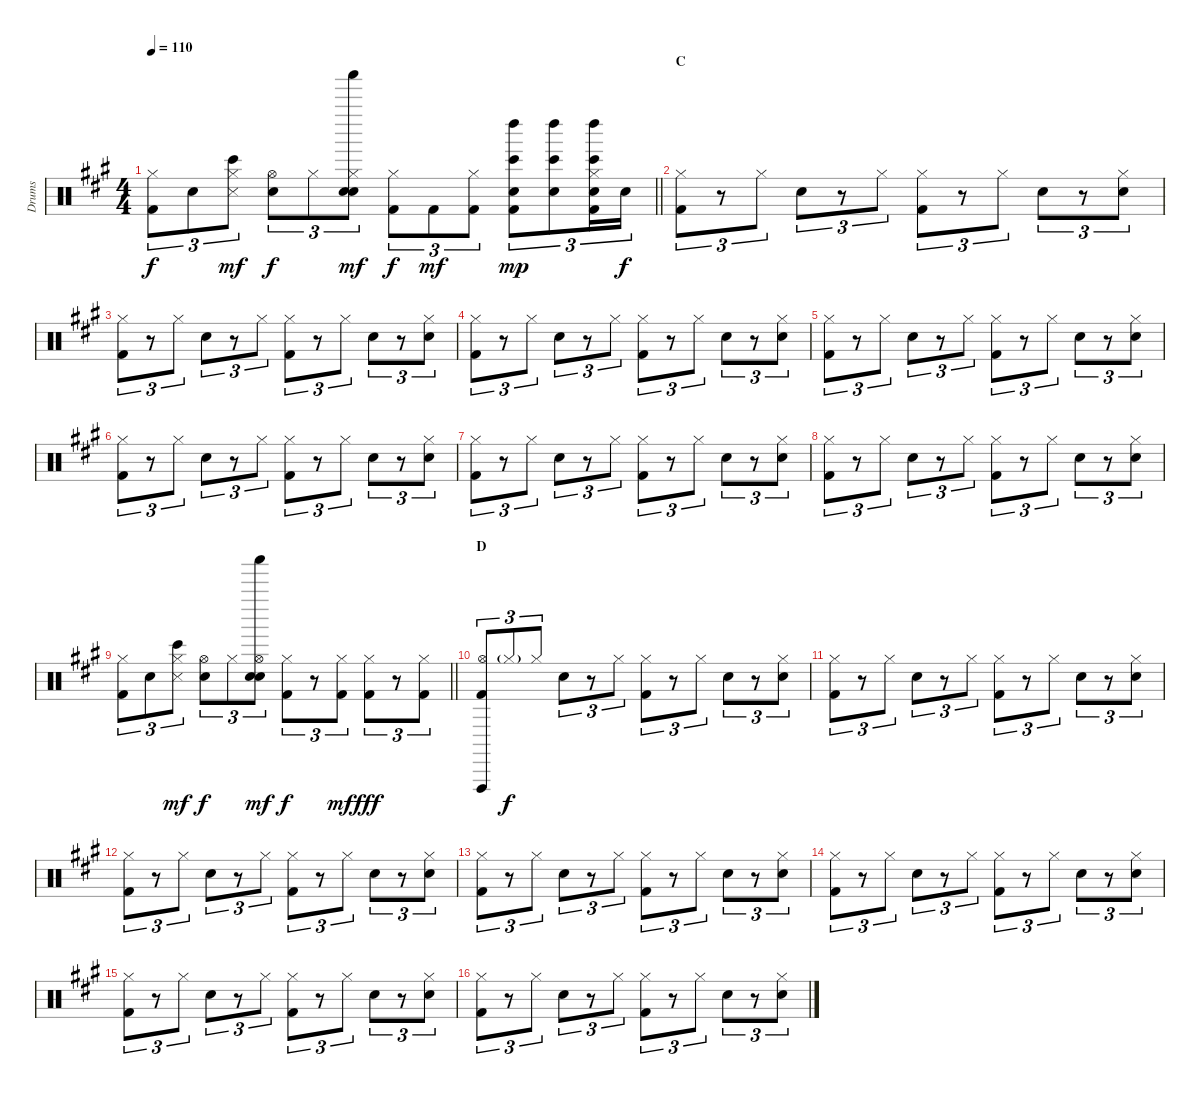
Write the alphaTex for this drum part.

\track ("Drums" "Drums") {instrument percussion}
\staff {score}
\articulation defaults
\ts (4 4)
\tempo 110
\clef neutral
\barLineRight lightlight
\ks a
("Hi-Hat (closed)" "Kick (hit) 2").8{tu (3 2) dy f} "Snare (hit) 2".8{tu (3 2)} ("Hi-Hat (closed)" "Metronome (hit)" "Bongo High (hit)").8{tu (3 2) dy mf} ("Hi-Hat (open)" "Snare (hit) 2").8{tu (3 2) dy f} "Hi-Hat (closed)".8{tu (3 2)} ("Shaker (hit)" "Hi-Hat (closed)" "Snare (hit) 2" "Snare (hit) 2").8{tu (3 2) dy mf} ("Hi-Hat (closed)" "Kick (hit) 2").8{tu (3 2) dy f} "Kick (hit) 2".8{tu (3 2) dy mf} ("Hi-Hat (closed)" "Kick (hit) 2").8{tu (3 2)} ("Snare (hit) 2" "Kick (hit) 2" "Left Maraca (hit)" "Bongo High (hit)").8{tu (3 2) dy mp} ("Snare (hit) 2" "Left Maraca (hit)" "Bongo High (hit)").8{tu (3 2)} ("Hi-Hat (closed)" "Snare (hit) 2" "Kick (hit) 2" "Left Maraca (hit)" "Bongo High (hit)").16{tu (3 2)} "Snare (hit) 2".16{tu (3 2) dy f} |
\section ("" "C")
("Hi-Hat (closed)" "Kick (hit) 2").8{tu (3 2)} r.8{tu (3 2)} "Hi-Hat (closed)".8{tu (3 2)} "Snare (hit) 2".8{tu (3 2)} r.8{tu (3 2)} "Hi-Hat (closed)".8{tu (3 2)} ("Hi-Hat (closed)" "Kick (hit) 2").8{tu (3 2)} r.8{tu (3 2)} "Hi-Hat (closed)".8{tu (3 2)} "Snare (hit) 2".8{tu (3 2)} r.8{tu (3 2)} ("Hi-Hat (closed)" "Snare (hit) 2").8{tu (3 2)} |
("Hi-Hat (closed)" "Kick (hit) 2").8{tu (3 2)} r.8{tu (3 2)} "Hi-Hat (closed)".8{tu (3 2)} "Snare (hit) 2".8{tu (3 2)} r.8{tu (3 2)} "Hi-Hat (closed)".8{tu (3 2)} ("Hi-Hat (closed)" "Kick (hit) 2").8{tu (3 2)} r.8{tu (3 2)} "Hi-Hat (closed)".8{tu (3 2)} "Snare (hit) 2".8{tu (3 2)} r.8{tu (3 2)} ("Hi-Hat (closed)" "Snare (hit) 2").8{tu (3 2)} |
("Hi-Hat (closed)" "Kick (hit) 2").8{tu (3 2)} r.8{tu (3 2)} "Hi-Hat (closed)".8{tu (3 2)} "Snare (hit) 2".8{tu (3 2)} r.8{tu (3 2)} "Hi-Hat (closed)".8{tu (3 2)} ("Hi-Hat (closed)" "Kick (hit) 2").8{tu (3 2)} r.8{tu (3 2)} "Hi-Hat (closed)".8{tu (3 2)} "Snare (hit) 2".8{tu (3 2)} r.8{tu (3 2)} ("Hi-Hat (closed)" "Snare (hit) 2").8{tu (3 2)} |
("Hi-Hat (closed)" "Kick (hit) 2").8{tu (3 2)} r.8{tu (3 2)} "Hi-Hat (closed)".8{tu (3 2)} "Snare (hit) 2".8{tu (3 2)} r.8{tu (3 2)} "Hi-Hat (closed)".8{tu (3 2)} ("Hi-Hat (closed)" "Kick (hit) 2").8{tu (3 2)} r.8{tu (3 2)} "Hi-Hat (closed)".8{tu (3 2)} "Snare (hit) 2".8{tu (3 2)} r.8{tu (3 2)} ("Hi-Hat (closed)" "Snare (hit) 2").8{tu (3 2)} |
("Hi-Hat (closed)" "Kick (hit) 2").8{tu (3 2)} r.8{tu (3 2)} "Hi-Hat (closed)".8{tu (3 2)} "Snare (hit) 2".8{tu (3 2)} r.8{tu (3 2)} "Hi-Hat (closed)".8{tu (3 2)} ("Hi-Hat (closed)" "Kick (hit) 2").8{tu (3 2)} r.8{tu (3 2)} "Hi-Hat (closed)".8{tu (3 2)} "Snare (hit) 2".8{tu (3 2)} r.8{tu (3 2)} ("Hi-Hat (closed)" "Snare (hit) 2").8{tu (3 2)} |
("Hi-Hat (closed)" "Kick (hit) 2").8{tu (3 2)} r.8{tu (3 2)} "Hi-Hat (closed)".8{tu (3 2)} "Snare (hit) 2".8{tu (3 2)} r.8{tu (3 2)} "Hi-Hat (closed)".8{tu (3 2)} ("Hi-Hat (closed)" "Kick (hit) 2").8{tu (3 2)} r.8{tu (3 2)} "Hi-Hat (closed)".8{tu (3 2)} "Snare (hit) 2".8{tu (3 2)} r.8{tu (3 2)} ("Hi-Hat (closed)" "Snare (hit) 2").8{tu (3 2)} |
("Hi-Hat (closed)" "Kick (hit) 2").8{tu (3 2)} r.8{tu (3 2)} "Hi-Hat (closed)".8{tu (3 2)} "Snare (hit) 2".8{tu (3 2)} r.8{tu (3 2)} "Hi-Hat (closed)".8{tu (3 2)} ("Hi-Hat (closed)" "Kick (hit) 2").8{tu (3 2)} r.8{tu (3 2)} "Hi-Hat (closed)".8{tu (3 2)} "Snare (hit) 2".8{tu (3 2)} r.8{tu (3 2)} ("Hi-Hat (closed)" "Snare (hit) 2").8{tu (3 2)} |
\barLineRight lightlight
("Hi-Hat (closed)" "Kick (hit) 2").8{tu (3 2)} "Snare (hit) 2".8{tu (3 2)} ("Hi-Hat (closed)" "Metronome (hit)" "Bongo High (hit)").8{tu (3 2) dy mf} ("Hi-Hat (open)" "Snare (hit) 2").8{tu (3 2) dy f} "Hi-Hat (closed)".8{tu (3 2)} ("Shaker (hit)" "Hi-Hat (open)" "Snare (hit) 2" "Snare (hit) 2").8{tu (3 2) dy mf} ("Hi-Hat (closed)" "Kick (hit) 2").8{tu (3 2) dy f} r.8{tu (3 2)} ("Hi-Hat (closed)" "Kick (hit) 2").8{tu (3 2) dy mf} ("Hi-Hat (closed)" "Kick (hit) 2").8{tu (3 2) dy fff} r.8{tu (3 2)} ("Hi-Hat (closed)" "Kick (hit) 2").8{tu (3 2)} |
\section ("" "D")
("Vibraslap (hit)" "Hi-Hat (open)" "Kick (hit) 2").8{tu (3 2)} "Hi-Hat (closed)"{g}.8{tu (3 2) dy f} "Hi-Hat (closed)".8{tu (3 2)} "Snare (hit) 2".8{tu (3 2)} r.8{tu (3 2)} "Hi-Hat (closed)".8{tu (3 2)} ("Hi-Hat (closed)" "Kick (hit) 2").8{tu (3 2)} r.8{tu (3 2)} "Hi-Hat (closed)".8{tu (3 2)} "Snare (hit) 2".8{tu (3 2)} r.8{tu (3 2)} ("Hi-Hat (closed)" "Snare (hit) 2").8{tu (3 2)} |
("Hi-Hat (closed)" "Kick (hit) 2").8{tu (3 2)} r.8{tu (3 2)} "Hi-Hat (closed)".8{tu (3 2)} "Snare (hit) 2".8{tu (3 2)} r.8{tu (3 2)} "Hi-Hat (closed)".8{tu (3 2)} ("Hi-Hat (closed)" "Kick (hit) 2").8{tu (3 2)} r.8{tu (3 2)} "Hi-Hat (closed)".8{tu (3 2)} "Snare (hit) 2".8{tu (3 2)} r.8{tu (3 2)} ("Hi-Hat (closed)" "Snare (hit) 2").8{tu (3 2)} |
("Hi-Hat (closed)" "Kick (hit) 2").8{tu (3 2)} r.8{tu (3 2)} "Hi-Hat (closed)".8{tu (3 2)} "Snare (hit) 2".8{tu (3 2)} r.8{tu (3 2)} "Hi-Hat (closed)".8{tu (3 2)} ("Hi-Hat (closed)" "Kick (hit) 2").8{tu (3 2)} r.8{tu (3 2)} "Hi-Hat (closed)".8{tu (3 2)} "Snare (hit) 2".8{tu (3 2)} r.8{tu (3 2)} ("Hi-Hat (closed)" "Snare (hit) 2").8{tu (3 2)} |
("Hi-Hat (closed)" "Kick (hit) 2").8{tu (3 2)} r.8{tu (3 2)} "Hi-Hat (closed)".8{tu (3 2)} "Snare (hit) 2".8{tu (3 2)} r.8{tu (3 2)} "Hi-Hat (closed)".8{tu (3 2)} ("Hi-Hat (closed)" "Kick (hit) 2").8{tu (3 2)} r.8{tu (3 2)} "Hi-Hat (closed)".8{tu (3 2)} "Snare (hit) 2".8{tu (3 2)} r.8{tu (3 2)} ("Hi-Hat (closed)" "Snare (hit) 2").8{tu (3 2)} |
("Hi-Hat (closed)" "Kick (hit) 2").8{tu (3 2)} r.8{tu (3 2)} "Hi-Hat (closed)".8{tu (3 2)} "Snare (hit) 2".8{tu (3 2)} r.8{tu (3 2)} "Hi-Hat (closed)".8{tu (3 2)} ("Hi-Hat (closed)" "Kick (hit) 2").8{tu (3 2)} r.8{tu (3 2)} "Hi-Hat (closed)".8{tu (3 2)} "Snare (hit) 2".8{tu (3 2)} r.8{tu (3 2)} ("Hi-Hat (closed)" "Snare (hit) 2").8{tu (3 2)} |
("Hi-Hat (closed)" "Kick (hit) 2").8{tu (3 2)} r.8{tu (3 2)} "Hi-Hat (closed)".8{tu (3 2)} "Snare (hit) 2".8{tu (3 2)} r.8{tu (3 2)} "Hi-Hat (closed)".8{tu (3 2)} ("Hi-Hat (closed)" "Kick (hit) 2").8{tu (3 2)} r.8{tu (3 2)} "Hi-Hat (closed)".8{tu (3 2)} "Snare (hit) 2".8{tu (3 2)} r.8{tu (3 2)} ("Hi-Hat (closed)" "Snare (hit) 2").8{tu (3 2)} |
("Hi-Hat (closed)" "Kick (hit) 2").8{tu (3 2)} r.8{tu (3 2)} "Hi-Hat (closed)".8{tu (3 2)} "Snare (hit) 2".8{tu (3 2)} r.8{tu (3 2)} "Hi-Hat (closed)".8{tu (3 2)} ("Hi-Hat (closed)" "Kick (hit) 2").8{tu (3 2)} r.8{tu (3 2)} "Hi-Hat (closed)".8{tu (3 2)} "Snare (hit) 2".8{tu (3 2)} r.8{tu (3 2)} ("Hi-Hat (closed)" "Snare (hit) 2").8{tu (3 2)}
